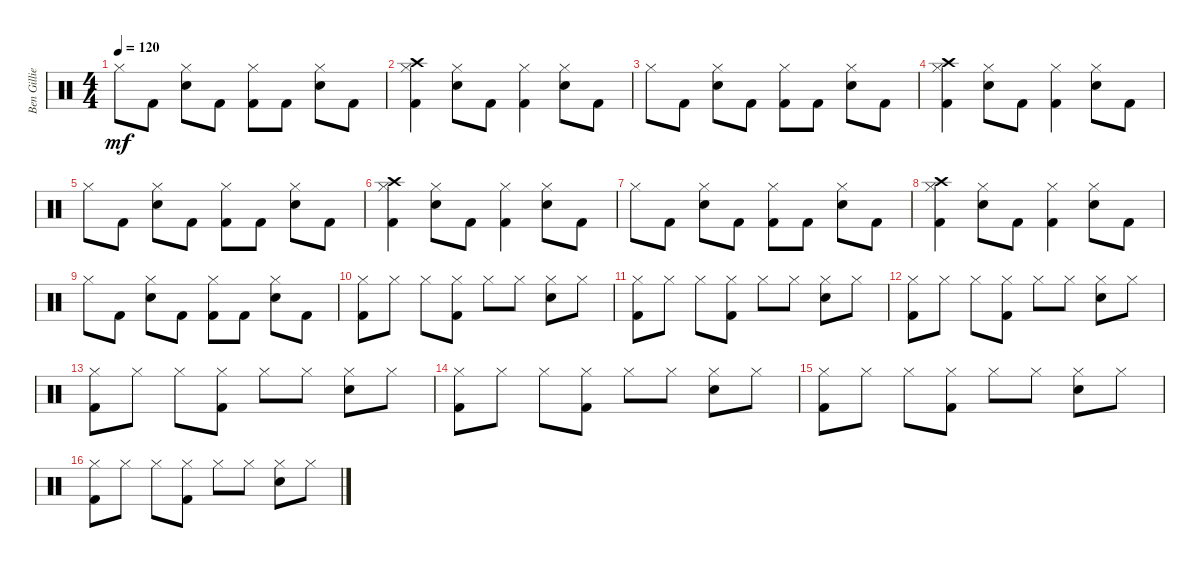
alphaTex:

\track ("Ben Gillies" "Ben Gillie") {instrument percussion}
\staff {score}
\articulation defaults
\ts (4 4)
\tempo 120
\clef neutral
\ks c "Hi-Hat (closed)".8{dy mf} "Kick (hit) 2".8
("Hi-Hat (closed)" "Electric Snare (hit)").8 "Kick (hit) 2".8 ("Hi-Hat (closed)" "Kick (hit) 2").8 "Kick (hit) 2".8 ("Hi-Hat (closed)" "Electric Snare (hit)").8 "Kick (hit) 2".8 |
("Crash high (hit)" "Hi-Hat (closed)" "Kick (hit) 2").4 ("Hi-Hat (closed)" "Electric Snare (hit)").8 "Kick (hit) 2".8 ("Hi-Hat (closed)" "Kick (hit) 2").4 ("Hi-Hat (closed)" "Electric Snare (hit)").8 "Kick (hit) 2".8 |
"Hi-Hat (closed)".8 "Kick (hit) 2".8 ("Hi-Hat (closed)" "Electric Snare (hit)").8 "Kick (hit) 2".8 ("Hi-Hat (closed)" "Kick (hit) 2").8 "Kick (hit) 2".8 ("Hi-Hat (closed)" "Electric Snare (hit)").8 "Kick (hit) 2".8 |
("Crash high (hit)" "Hi-Hat (closed)" "Kick (hit) 2").4 ("Hi-Hat (closed)" "Electric Snare (hit)").8 "Kick (hit) 2".8 ("Hi-Hat (closed)" "Kick (hit) 2").4 ("Hi-Hat (closed)" "Electric Snare (hit)").8 "Kick (hit) 2".8 |
"Hi-Hat (closed)".8 "Kick (hit) 2".8 ("Hi-Hat (closed)" "Electric Snare (hit)").8 "Kick (hit) 2".8 ("Hi-Hat (closed)" "Kick (hit) 2").8 "Kick (hit) 2".8 ("Hi-Hat (closed)" "Electric Snare (hit)").8 "Kick (hit) 2".8 |
("Crash high (hit)" "Hi-Hat (closed)" "Kick (hit) 2").4 ("Hi-Hat (closed)" "Electric Snare (hit)").8 "Kick (hit) 2".8 ("Hi-Hat (closed)" "Kick (hit) 2").4 ("Hi-Hat (closed)" "Electric Snare (hit)").8 "Kick (hit) 2".8 |
"Hi-Hat (closed)".8 "Kick (hit) 2".8 ("Hi-Hat (closed)" "Electric Snare (hit)").8 "Kick (hit) 2".8 ("Hi-Hat (closed)" "Kick (hit) 2").8 "Kick (hit) 2".8 ("Hi-Hat (closed)" "Electric Snare (hit)").8 "Kick (hit) 2".8 |
("Crash high (hit)" "Hi-Hat (closed)" "Kick (hit) 2").4 ("Hi-Hat (closed)" "Electric Snare (hit)").8 "Kick (hit) 2".8 ("Hi-Hat (closed)" "Kick (hit) 2").4 ("Hi-Hat (closed)" "Electric Snare (hit)").8 "Kick (hit) 2".8 |
"Hi-Hat (closed)".8 "Kick (hit) 2".8 ("Hi-Hat (closed)" "Electric Snare (hit)").8 "Kick (hit) 2".8 ("Hi-Hat (closed)" "Kick (hit) 2").8 "Kick (hit) 2".8 ("Hi-Hat (closed)" "Electric Snare (hit)").8 "Kick (hit) 2".8 |
("Hi-Hat (closed)" "Kick (hit) 2").8 "Hi-Hat (closed)".8 "Hi-Hat (closed)".8 ("Hi-Hat (closed)" "Kick (hit) 2").8 "Hi-Hat (closed)".8 "Hi-Hat (closed)".8 ("Hi-Hat (closed)" "Electric Snare (hit)").8 "Hi-Hat (closed)".8 |
("Hi-Hat (closed)" "Kick (hit) 2").8 "Hi-Hat (closed)".8 "Hi-Hat (closed)".8 ("Hi-Hat (closed)" "Kick (hit) 2").8 "Hi-Hat (closed)".8 "Hi-Hat (closed)".8 ("Hi-Hat (closed)" "Electric Snare (hit)").8 "Hi-Hat (closed)".8 |
("Hi-Hat (closed)" "Kick (hit) 2").8 "Hi-Hat (closed)".8 "Hi-Hat (closed)".8 ("Hi-Hat (closed)" "Kick (hit) 2").8 "Hi-Hat (closed)".8 "Hi-Hat (closed)".8 ("Hi-Hat (closed)" "Electric Snare (hit)").8 "Hi-Hat (closed)".8 |
("Hi-Hat (closed)" "Kick (hit) 2").8 "Hi-Hat (closed)".8 "Hi-Hat (closed)".8 ("Hi-Hat (closed)" "Kick (hit) 2").8 "Hi-Hat (closed)".8 "Hi-Hat (closed)".8 ("Hi-Hat (closed)" "Electric Snare (hit)").8 "Hi-Hat (closed)".8 |
("Hi-Hat (closed)" "Kick (hit) 2").8 "Hi-Hat (closed)".8 "Hi-Hat (closed)".8 ("Hi-Hat (closed)" "Kick (hit) 2").8 "Hi-Hat (closed)".8 "Hi-Hat (closed)".8 ("Hi-Hat (closed)" "Electric Snare (hit)").8 "Hi-Hat (closed)".8 |
("Hi-Hat (closed)" "Kick (hit) 2").8 "Hi-Hat (closed)".8 "Hi-Hat (closed)".8 ("Hi-Hat (closed)" "Kick (hit) 2").8 "Hi-Hat (closed)".8 "Hi-Hat (closed)".8 ("Hi-Hat (closed)" "Electric Snare (hit)").8 "Hi-Hat (closed)".8 |
("Hi-Hat (closed)" "Kick (hit) 2").8 "Hi-Hat (closed)".8 "Hi-Hat (closed)".8 ("Hi-Hat (closed)" "Kick (hit) 2").8 "Hi-Hat (closed)".8 "Hi-Hat (closed)".8 ("Hi-Hat (closed)" "Electric Snare (hit)").8 "Hi-Hat (closed)".8
